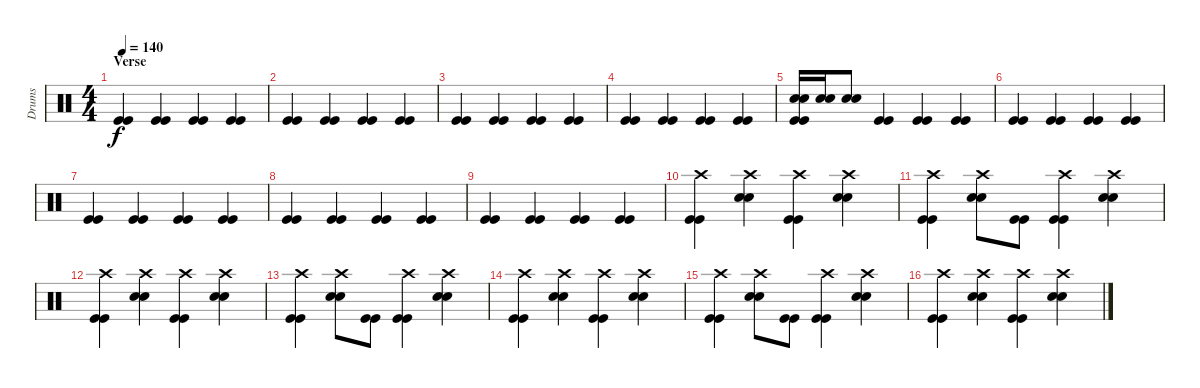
\track ("Drums" "Drums") {instrument percussion}
\staff {score}
\articulation defaults
\ts (4 4)
\section ("" "Verse")
\tempo 140
\clef neutral
\ks c
("Kick (hit)" "Kick (hit)").4{dy f} ("Kick (hit)" "Kick (hit)").4 ("Kick (hit)" "Kick (hit)").4 ("Kick (hit)" "Kick (hit)").4 |
("Kick (hit)" "Kick (hit)").4 ("Kick (hit)" "Kick (hit)").4 ("Kick (hit)" "Kick (hit)").4 ("Kick (hit)" "Kick (hit)").4 |
("Kick (hit)" "Kick (hit)").4 ("Kick (hit)" "Kick (hit)").4 ("Kick (hit)" "Kick (hit)").4 ("Kick (hit)" "Kick (hit)").4 |
("Kick (hit)" "Kick (hit)").4 ("Kick (hit)" "Kick (hit)").4 ("Kick (hit)" "Kick (hit)").4 ("Kick (hit)" "Kick (hit)").4 |
("Snare (hit) 2" "Snare (hit) 2" "Kick (hit)" "Kick (hit)").16 ("Snare (hit) 2" "Snare (hit) 2").16 ("Snare (hit) 2" "Snare (hit) 2").8 ("Kick (hit)" "Kick (hit)").4 ("Kick (hit)" "Kick (hit)").4 ("Kick (hit)" "Kick (hit)").4 |
("Kick (hit)" "Kick (hit)").4 ("Kick (hit)" "Kick (hit)").4 ("Kick (hit)" "Kick (hit)").4 ("Kick (hit)" "Kick (hit)").4 |
("Kick (hit)" "Kick (hit)").4 ("Kick (hit)" "Kick (hit)").4 ("Kick (hit)" "Kick (hit)").4 ("Kick (hit)" "Kick (hit)").4 |
("Kick (hit)" "Kick (hit)").4 ("Kick (hit)" "Kick (hit)").4 ("Kick (hit)" "Kick (hit)").4 ("Kick (hit)" "Kick (hit)").4 |
("Kick (hit)" "Kick (hit)").4 ("Kick (hit)" "Kick (hit)").4 ("Kick (hit)" "Kick (hit)").4 ("Kick (hit)" "Kick (hit)").4 |
("Crash high (hit)" "Kick (hit)" "Kick (hit)").4 ("Crash high (hit)" "Snare (hit) 2" "Snare (hit) 2").4 ("Crash high (hit)" "Kick (hit)" "Kick (hit)").4 ("Crash high (hit)" "Snare (hit) 2" "Snare (hit) 2").4 |
("Crash high (hit)" "Kick (hit)" "Kick (hit)").4 ("Crash high (hit)" "Snare (hit) 2" "Snare (hit) 2").8 ("Kick (hit)" "Kick (hit)").8 ("Crash high (hit)" "Kick (hit)" "Kick (hit)").4 ("Crash high (hit)" "Snare (hit) 2" "Snare (hit) 2").4 |
("Crash high (hit)" "Kick (hit)" "Kick (hit)").4 ("Crash high (hit)" "Snare (hit) 2" "Snare (hit) 2").4 ("Crash high (hit)" "Kick (hit)" "Kick (hit)").4 ("Crash high (hit)" "Snare (hit) 2" "Snare (hit) 2").4 |
("Crash high (hit)" "Kick (hit)" "Kick (hit)").4 ("Crash high (hit)" "Snare (hit) 2" "Snare (hit) 2").8 ("Kick (hit)" "Kick (hit)").8 ("Crash high (hit)" "Kick (hit)" "Kick (hit)").4 ("Crash high (hit)" "Snare (hit) 2" "Snare (hit) 2").4 |
("Crash high (hit)" "Kick (hit)" "Kick (hit)").4 ("Crash high (hit)" "Snare (hit) 2" "Snare (hit) 2").4 ("Crash high (hit)" "Kick (hit)" "Kick (hit)").4 ("Crash high (hit)" "Snare (hit) 2" "Snare (hit) 2").4 |
("Crash high (hit)" "Kick (hit)" "Kick (hit)").4 ("Crash high (hit)" "Snare (hit) 2" "Snare (hit) 2").8 ("Kick (hit)" "Kick (hit)").8 ("Crash high (hit)" "Kick (hit)" "Kick (hit)").4 ("Crash high (hit)" "Snare (hit) 2" "Snare (hit) 2").4 |
("Crash high (hit)" "Kick (hit)" "Kick (hit)").4 ("Crash high (hit)" "Snare (hit) 2" "Snare (hit) 2").4 ("Crash high (hit)" "Kick (hit)" "Kick (hit)").4 ("Crash high (hit)" "Snare (hit) 2" "Snare (hit) 2").4
